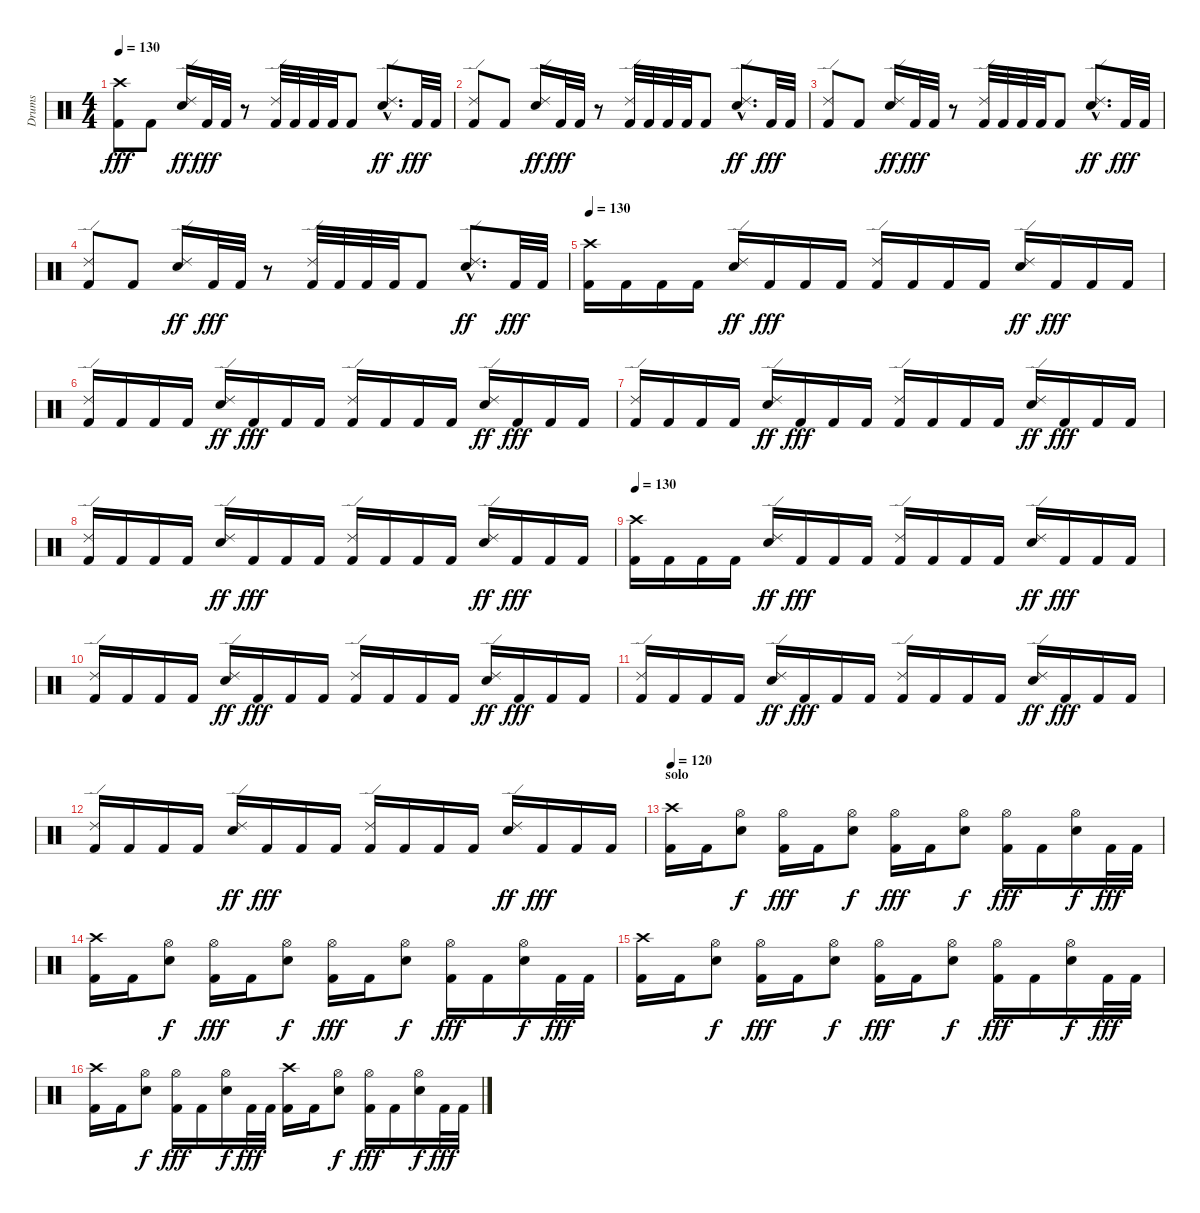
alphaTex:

\track ("Drums" "Drums") {instrument percussion}
\staff {score}
\articulation defaults
\ts (4 4)
\tempo 130
\clef neutral
\ks c
("Crash high (hit)" "Kick (hit) 2").8{dy fff} "Kick (hit) 2".8 ("Ride (edge) 2" "Snare (hit) 2").16{dy ff} "Kick (hit) 2".32{dy fff} "Kick (hit) 2".32 r.8 ("Ride (edge) 2" "Kick (hit) 2").32 "Kick (hit) 2".32 "Kick (hit) 2".32 "Kick (hit) 2".32 "Kick (hit) 2".8 ("Ride (edge) 2"{hac} "Snare (hit) 2"{hac}).8{d dy ff} "Kick (hit) 2".32{dy fff} "Kick (hit) 2".32 |
("Ride (edge) 2" "Kick (hit) 2").8 "Kick (hit) 2".8 ("Ride (edge) 2" "Snare (hit) 2").16{dy ff} "Kick (hit) 2".32{dy fff} "Kick (hit) 2".32 r.8 ("Ride (edge) 2" "Kick (hit) 2").32 "Kick (hit) 2".32 "Kick (hit) 2".32 "Kick (hit) 2".32 "Kick (hit) 2".8 ("Ride (edge) 2"{hac} "Snare (hit) 2"{hac}).8{d dy ff} "Kick (hit) 2".32{dy fff} "Kick (hit) 2".32 |
("Ride (edge) 2" "Kick (hit) 2").8 "Kick (hit) 2".8 ("Ride (edge) 2" "Snare (hit) 2").16{dy ff} "Kick (hit) 2".32{dy fff} "Kick (hit) 2".32 r.8 ("Ride (edge) 2" "Kick (hit) 2").32 "Kick (hit) 2".32 "Kick (hit) 2".32 "Kick (hit) 2".32 "Kick (hit) 2".8 ("Ride (edge) 2"{hac} "Snare (hit) 2"{hac}).8{d dy ff} "Kick (hit) 2".32{dy fff} "Kick (hit) 2".32 |
("Ride (edge) 2" "Kick (hit) 2").8 "Kick (hit) 2".8 ("Ride (edge) 2" "Snare (hit) 2").16{dy ff} "Kick (hit) 2".32{dy fff} "Kick (hit) 2".32 r.8 ("Ride (edge) 2" "Kick (hit) 2").32 "Kick (hit) 2".32 "Kick (hit) 2".32 "Kick (hit) 2".32 "Kick (hit) 2".8 ("Ride (edge) 2"{hac} "Snare (hit) 2"{hac}).8{d dy ff} "Kick (hit) 2".32{dy fff} "Kick (hit) 2".32 |
\tempo 130
("Crash high (hit)" "Kick (hit) 2").16 "Kick (hit) 2".16 "Kick (hit) 2".16 "Kick (hit) 2".16 ("Ride (edge) 2" "Snare (hit) 2").16{dy ff} "Kick (hit) 2".16{dy fff} "Kick (hit) 2".16 "Kick (hit) 2".16 ("Ride (edge) 2" "Kick (hit) 2").16 "Kick (hit) 2".16 "Kick (hit) 2".16 "Kick (hit) 2".16 ("Ride (edge) 2" "Snare (hit) 2").16{dy ff} "Kick (hit) 2".16{dy fff} "Kick (hit) 2".16 "Kick (hit) 2".16 |
("Ride (edge) 2" "Kick (hit) 2").16 "Kick (hit) 2".16 "Kick (hit) 2".16 "Kick (hit) 2".16 ("Ride (edge) 2" "Snare (hit) 2").16{dy ff} "Kick (hit) 2".16{dy fff} "Kick (hit) 2".16 "Kick (hit) 2".16 ("Ride (edge) 2" "Kick (hit) 2").16 "Kick (hit) 2".16 "Kick (hit) 2".16 "Kick (hit) 2".16 ("Ride (edge) 2" "Snare (hit) 2").16{dy ff} "Kick (hit) 2".16{dy fff} "Kick (hit) 2".16 "Kick (hit) 2".16 |
("Ride (edge) 2" "Kick (hit) 2").16 "Kick (hit) 2".16 "Kick (hit) 2".16 "Kick (hit) 2".16 ("Ride (edge) 2" "Snare (hit) 2").16{dy ff} "Kick (hit) 2".16{dy fff} "Kick (hit) 2".16 "Kick (hit) 2".16 ("Ride (edge) 2" "Kick (hit) 2").16 "Kick (hit) 2".16 "Kick (hit) 2".16 "Kick (hit) 2".16 ("Ride (edge) 2" "Snare (hit) 2").16{dy ff} "Kick (hit) 2".16{dy fff} "Kick (hit) 2".16 "Kick (hit) 2".16 |
("Ride (edge) 2" "Kick (hit) 2").16 "Kick (hit) 2".16 "Kick (hit) 2".16 "Kick (hit) 2".16 ("Ride (edge) 2" "Snare (hit) 2").16{dy ff} "Kick (hit) 2".16{dy fff} "Kick (hit) 2".16 "Kick (hit) 2".16 ("Ride (edge) 2" "Kick (hit) 2").16 "Kick (hit) 2".16 "Kick (hit) 2".16 "Kick (hit) 2".16 ("Ride (edge) 2" "Snare (hit) 2").16{dy ff} "Kick (hit) 2".16{dy fff} "Kick (hit) 2".16 "Kick (hit) 2".16 |
\tempo 130
("Crash high (hit)" "Kick (hit) 2").16 "Kick (hit) 2".16 "Kick (hit) 2".16 "Kick (hit) 2".16 ("Ride (edge) 2" "Snare (hit) 2").16{dy ff} "Kick (hit) 2".16{dy fff} "Kick (hit) 2".16 "Kick (hit) 2".16 ("Ride (edge) 2" "Kick (hit) 2").16 "Kick (hit) 2".16 "Kick (hit) 2".16 "Kick (hit) 2".16 ("Ride (edge) 2" "Snare (hit) 2").16{dy ff} "Kick (hit) 2".16{dy fff} "Kick (hit) 2".16 "Kick (hit) 2".16 |
("Ride (edge) 2" "Kick (hit) 2").16 "Kick (hit) 2".16 "Kick (hit) 2".16 "Kick (hit) 2".16 ("Ride (edge) 2" "Snare (hit) 2").16{dy ff} "Kick (hit) 2".16{dy fff} "Kick (hit) 2".16 "Kick (hit) 2".16 ("Ride (edge) 2" "Kick (hit) 2").16 "Kick (hit) 2".16 "Kick (hit) 2".16 "Kick (hit) 2".16 ("Ride (edge) 2" "Snare (hit) 2").16{dy ff} "Kick (hit) 2".16{dy fff} "Kick (hit) 2".16 "Kick (hit) 2".16 |
("Ride (edge) 2" "Kick (hit) 2").16 "Kick (hit) 2".16 "Kick (hit) 2".16 "Kick (hit) 2".16 ("Ride (edge) 2" "Snare (hit) 2").16{dy ff} "Kick (hit) 2".16{dy fff} "Kick (hit) 2".16 "Kick (hit) 2".16 ("Ride (edge) 2" "Kick (hit) 2").16 "Kick (hit) 2".16 "Kick (hit) 2".16 "Kick (hit) 2".16 ("Ride (edge) 2" "Snare (hit) 2").16{dy ff} "Kick (hit) 2".16{dy fff} "Kick (hit) 2".16 "Kick (hit) 2".16 |
("Ride (edge) 2" "Kick (hit) 2").16 "Kick (hit) 2".16 "Kick (hit) 2".16 "Kick (hit) 2".16 ("Ride (edge) 2" "Snare (hit) 2").16{dy ff} "Kick (hit) 2".16{dy fff} "Kick (hit) 2".16 "Kick (hit) 2".16 ("Ride (edge) 2" "Kick (hit) 2").16 "Kick (hit) 2".16 "Kick (hit) 2".16 "Kick (hit) 2".16 ("Ride (edge) 2" "Snare (hit) 2").16{dy ff} "Kick (hit) 2".16{dy fff} "Kick (hit) 2".16 "Kick (hit) 2".16 |
\section ("" "solo")
\tempo 120
("Crash high (hit)" "Kick (hit) 2").16 "Kick (hit) 2".16 ("Hi-Hat (open)" "Snare (hit) 2").8{dy f} ("Hi-Hat (open)" "Kick (hit) 2").16{dy fff} "Kick (hit) 2".16 ("Hi-Hat (open)" "Snare (hit) 2").8{dy f} ("Hi-Hat (open)" "Kick (hit) 2").16{dy fff} "Kick (hit) 2".16 ("Hi-Hat (open)" "Snare (hit) 2").8{dy f} ("Hi-Hat (open)" "Kick (hit) 2").16{dy fff} "Kick (hit) 2".16 ("Hi-Hat (open)" "Snare (hit) 2").16{dy f} "Kick (hit) 2".32{dy fff} "Kick (hit) 2".32 |
("Crash high (hit)" "Kick (hit) 2").16 "Kick (hit) 2".16 ("Hi-Hat (open)" "Snare (hit) 2").8{dy f} ("Hi-Hat (open)" "Kick (hit) 2").16{dy fff} "Kick (hit) 2".16 ("Hi-Hat (open)" "Snare (hit) 2").8{dy f} ("Hi-Hat (open)" "Kick (hit) 2").16{dy fff} "Kick (hit) 2".16 ("Hi-Hat (open)" "Snare (hit) 2").8{dy f} ("Hi-Hat (open)" "Kick (hit) 2").16{dy fff} "Kick (hit) 2".16 ("Hi-Hat (open)" "Snare (hit) 2").16{dy f} "Kick (hit) 2".32{dy fff} "Kick (hit) 2".32 |
("Crash high (hit)" "Kick (hit) 2").16 "Kick (hit) 2".16 ("Hi-Hat (open)" "Snare (hit) 2").8{dy f} ("Hi-Hat (open)" "Kick (hit) 2").16{dy fff} "Kick (hit) 2".16 ("Hi-Hat (open)" "Snare (hit) 2").8{dy f} ("Hi-Hat (open)" "Kick (hit) 2").16{dy fff} "Kick (hit) 2".16 ("Hi-Hat (open)" "Snare (hit) 2").8{dy f} ("Hi-Hat (open)" "Kick (hit) 2").16{dy fff} "Kick (hit) 2".16 ("Hi-Hat (open)" "Snare (hit) 2").16{dy f} "Kick (hit) 2".32{dy fff} "Kick (hit) 2".32 |
("Crash high (hit)" "Kick (hit) 2").16 "Kick (hit) 2".16 ("Hi-Hat (open)" "Snare (hit) 2").8{dy f} ("Hi-Hat (open)" "Kick (hit) 2").16{dy fff} "Kick (hit) 2".16 ("Hi-Hat (open)" "Snare (hit) 2").16{dy f} "Kick (hit) 2".32{dy fff} "Kick (hit) 2".32 ("Crash high (hit)" "Kick (hit) 2").16 "Kick (hit) 2".16 ("Hi-Hat (open)" "Snare (hit) 2").8{dy f} ("Hi-Hat (open)" "Kick (hit) 2").16{dy fff} "Kick (hit) 2".16 ("Hi-Hat (open)" "Snare (hit) 2").16{dy f} "Kick (hit) 2".32{dy fff} "Kick (hit) 2".32
